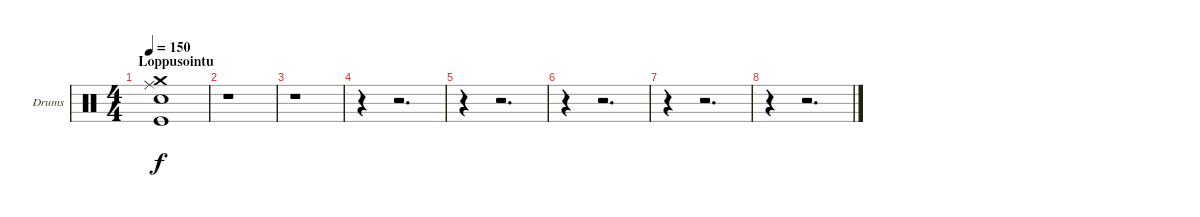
\bracketExtendMode groupsimilarinstruments
\firstSystemTrackNameOrientation horizontal
\otherSystemsTrackNameOrientation horizontal
\track ("Drumkit" "Drums") {instrument percussion}
\staff {score}
\articulation defaults
\ts (4 4)
\section ("" "Loppusointu")
\tempo 150
\clef neutral
\ks c
("Crash medium (hit)" "Ride (middle)" "Snare (hit) 2" "Kick (hit)").1{dy f} |
r.1 |
r.1 |
r.4 r.2{d} |
r.4 r.2{d} |
r.4 r.2{d} |
r.4 r.2{d} |
r.4 r.2{d}
